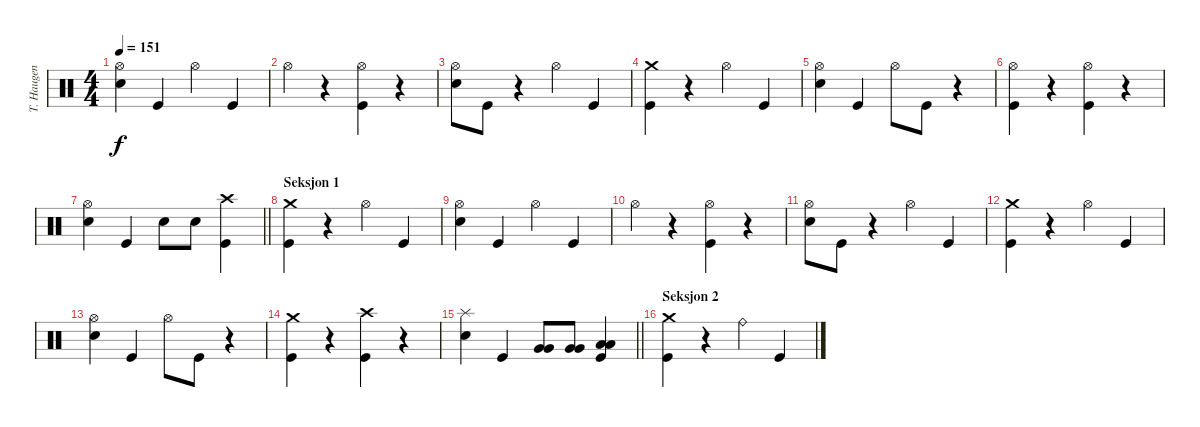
\track ("T. Haugen" "T. Haugen") {instrument percussion}
\staff {score}
\articulation defaults
\ts (4 4)
\tempo 151
\clef neutral
\ks c
("Hi-Hat (open)" "Electric Snare (hit)").4{dy f} "Kick (hit)".4 "Hi-Hat (open)".4 "Kick (hit)".4 |
"Hi-Hat (open)".4 r.4 ("Hi-Hat (open)" "Kick (hit)").4 r.4 |
("Hi-Hat (open)" "Electric Snare (hit)").8 "Kick (hit)".8 r.4 "Hi-Hat (open)".4 "Kick (hit)".4 |
("Crash medium (hit)" "Kick (hit)").4 r.4 "Hi-Hat (open)".4 "Kick (hit)".4 |
("Hi-Hat (open)" "Electric Snare (hit)").4 "Kick (hit)".4 "Hi-Hat (open)".8 "Kick (hit)".8 r.4 |
("Hi-Hat (open)" "Kick (hit)").4 r.4 ("Hi-Hat (open)" "Kick (hit)").4 r.4 |
\barLineRight lightlight
("Hi-Hat (open)" "Electric Snare (hit)").4 "Kick (hit)".4 "Electric Snare (hit)".8 "Electric Snare (hit)".8 ("Crash high (hit)" "Kick (hit)").4 |
\section ("" "Seksjon 1")
("Crash medium (hit)" "Kick (hit)").4 r.4 "Hi-Hat (open)".4 "Kick (hit)".4 |
("Hi-Hat (open)" "Electric Snare (hit)").4 "Kick (hit)".4 "Hi-Hat (open)".4 "Kick (hit)".4 |
"Hi-Hat (open)".4 r.4 ("Hi-Hat (open)" "Kick (hit)").4 r.4 |
("Hi-Hat (open)" "Electric Snare (hit)").8 "Kick (hit)".8 r.4 "Hi-Hat (open)".4 "Kick (hit)".4 |
("Crash medium (hit)" "Kick (hit)").4 r.4 "Hi-Hat (open)".4 "Kick (hit)".4 |
("Hi-Hat (open)" "Electric Snare (hit)").4 "Kick (hit)".4 "Hi-Hat (open)".8 "Kick (hit)".8 r.4 |
("Crash medium (hit)" "Kick (hit)").4 r.4 ("Crash high (hit)" "Kick (hit)").4 r.4 |
\barLineRight lightlight
("Splash (hit)" "Electric Snare (hit)").4 "Kick (hit)".4 ("Very Low Tom (hit)" "Very Low Tom (hit)").8 ("Very Low Tom (hit)" "Very Low Tom (hit)").8 ("Low Floor Tom (hit)" "Low Floor Tom (hit)" "Kick (hit)").4 |
\section ("" "Seksjon 2")
("Crash medium (hit)" "Kick (hit)").4 r.4 "Ride (bell)".4 "Kick (hit)".4
